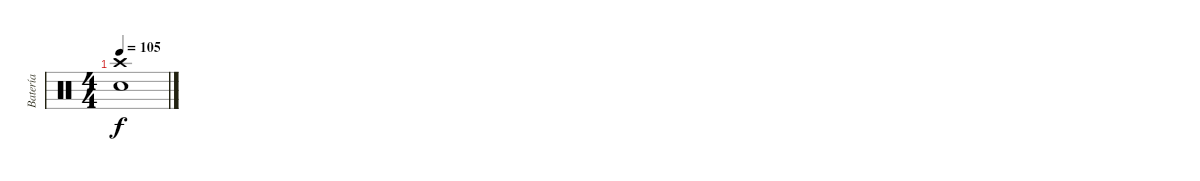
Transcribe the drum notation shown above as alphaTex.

\track ("Batería" "Batería") {instrument percussion}
\staff {score}
\articulation defaults
\ts (4 4)
\tempo 105
\clef neutral
\ks c
("Crash high (hit)" "Snare (hit) 2").1{dy f}
